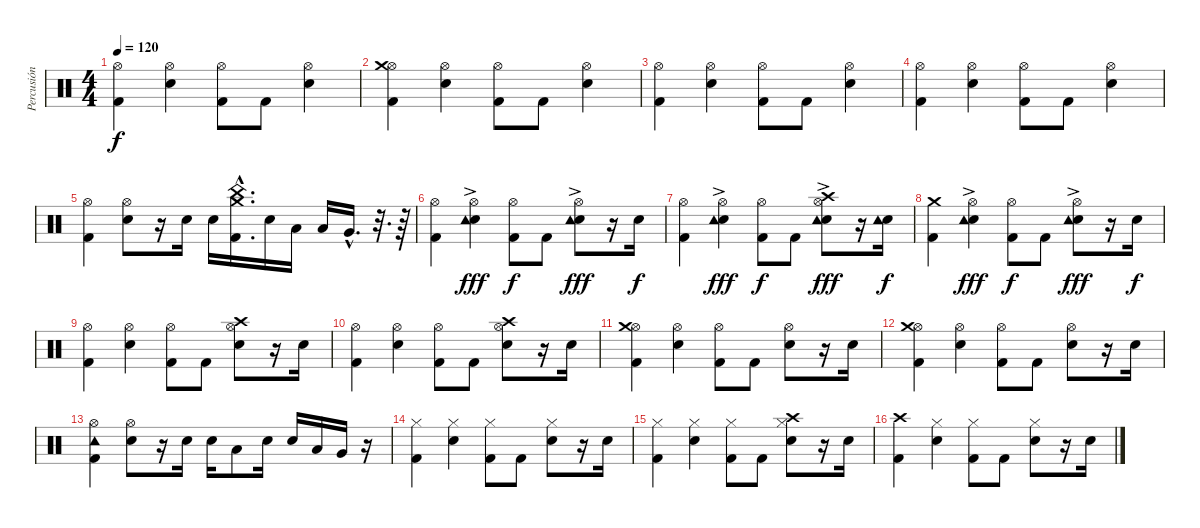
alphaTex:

\track ("Percusión" "Percusión") {instrument percussion}
\staff {score}
\articulation defaults
\ts (4 4)
\tempo 120
\clef neutral
\ks c
("Hi-Hat (open)" "Kick (hit) 2").4{dy f} ("Hi-Hat (open)" "Electric Snare (hit)").4 ("Hi-Hat (open)" "Kick (hit) 2").8 "Kick (hit) 2".8 ("Hi-Hat (open)" "Electric Snare (hit)").4 |
("Hi-Hat (open)" "Kick (hit) 2" "Crash medium (hit)").4 ("Hi-Hat (open)" "Electric Snare (hit)").4 ("Hi-Hat (open)" "Kick (hit) 2").8 "Kick (hit) 2".8 ("Hi-Hat (open)" "Electric Snare (hit)").4 |
("Hi-Hat (open)" "Kick (hit) 2").4 ("Hi-Hat (open)" "Electric Snare (hit)").4 ("Hi-Hat (open)" "Kick (hit) 2").8 "Kick (hit) 2".8 ("Hi-Hat (open)" "Electric Snare (hit)").4 |
("Hi-Hat (open)" "Kick (hit) 2").4 ("Hi-Hat (open)" "Electric Snare (hit)").4 ("Hi-Hat (open)" "Kick (hit) 2").8 "Kick (hit) 2".8 ("Hi-Hat (open)" "Electric Snare (hit)").4 |
("Hi-Hat (open)" "Kick (hit) 2").4 ("Hi-Hat (open)" "Electric Snare (hit)").8 r.16 "Electric Snare (hit)".16 "Electric Snare (hit)".16 ("Kick (hit) 2"{hac} "China (hit)"{hac} "Crash medium (hit)"{hac}).16{d} "Electric Snare (hit)".16 "Low Tom (hit)".16 "Low Tom (hit)".16 "Very Low Tom (hit)"{hac}.16{d} r.32{d} r.64 |
("Hi-Hat (open)" "Kick (hit) 2").4 ("Hi-Hat (open)" "Electric Snare (hit)" "Tambourine (hit)"{ac}).4{dy fff} ("Hi-Hat (open)" "Kick (hit) 2").8{dy f} "Kick (hit) 2".8 ("Hi-Hat (open)" "Electric Snare (hit)" "Tambourine (hit)"{ac}).8{dy fff} r.16 "Electric Snare (hit)".16{dy f} |
("Hi-Hat (open)" "Kick (hit) 2").4 ("Hi-Hat (open)" "Electric Snare (hit)" "Tambourine (hit)"{ac}).4{dy fff} ("Hi-Hat (open)" "Kick (hit) 2").8{dy f} "Kick (hit) 2".8 ("Hi-Hat (open)" "Crash high (hit)" "Electric Snare (hit)" "Tambourine (hit)"{ac}).8{dy fff} r.16 ("Electric Snare (hit)" "Tambourine (hit)").16{dy f} |
("Crash medium (hit)" "Kick (hit) 2").4 ("Hi-Hat (open)" "Electric Snare (hit)" "Tambourine (hit)"{ac}).4{dy fff} ("Hi-Hat (open)" "Kick (hit) 2").8{dy f} "Kick (hit) 2".8 ("Hi-Hat (open)" "Electric Snare (hit)" "Tambourine (hit)"{ac}).8{dy fff} r.16 "Electric Snare (hit)".16{dy f} |
("Hi-Hat (open)" "Kick (hit) 2").4 ("Hi-Hat (open)" "Electric Snare (hit)").4 ("Hi-Hat (open)" "Kick (hit) 2").8 "Kick (hit) 2".8 ("Hi-Hat (open)" "Crash high (hit)" "Electric Snare (hit)").8 r.16 "Electric Snare (hit)".16 |
("Hi-Hat (open)" "Kick (hit) 2").4 ("Hi-Hat (open)" "Electric Snare (hit)").4 ("Hi-Hat (open)" "Kick (hit) 2").8 "Kick (hit) 2".8 ("Hi-Hat (open)" "Crash high (hit)" "Electric Snare (hit)").8 r.16 "Electric Snare (hit)".16 |
("Hi-Hat (open)" "Kick (hit) 2" "Crash medium (hit)").4 ("Hi-Hat (open)" "Electric Snare (hit)").4 ("Hi-Hat (open)" "Kick (hit) 2").8 "Kick (hit) 2".8 ("Hi-Hat (open)" "Electric Snare (hit)").8 r.16 "Electric Snare (hit)".16 |
("Hi-Hat (open)" "Kick (hit) 2" "Crash medium (hit)").4 ("Hi-Hat (open)" "Electric Snare (hit)").4 ("Hi-Hat (open)" "Kick (hit) 2").8 "Kick (hit) 2".8 ("Hi-Hat (open)" "Electric Snare (hit)").8 r.16 "Electric Snare (hit)".16 |
("Hi-Hat (open)" "Kick (hit) 2" "Tambourine (hit)").4 ("Hi-Hat (open)" "Electric Snare (hit)").8 r.16 "Electric Snare (hit)".16 "Electric Snare (hit)".16 "Low Floor Tom (hit)".8 "Electric Snare (hit)".16 "Electric Snare (hit)".16 "Low Tom (hit)".16 "Very Low Tom (hit)".16 r.16 |
("Hi-Hat (closed)" "Kick (hit) 2").4 ("Hi-Hat (closed)" "Electric Snare (hit)").4 ("Hi-Hat (closed)" "Kick (hit) 2").8 "Kick (hit) 2".8 ("Hi-Hat (closed)" "Electric Snare (hit)").8 r.16 "Electric Snare (hit)".16 |
("Hi-Hat (closed)" "Kick (hit) 2").4 ("Hi-Hat (closed)" "Electric Snare (hit)").4 ("Hi-Hat (closed)" "Kick (hit) 2").8 "Kick (hit) 2".8 ("Hi-Hat (closed)" "Crash high (hit)" "Electric Snare (hit)").8 r.16 "Electric Snare (hit)".16 |
("Crash high (hit)" "Kick (hit) 2").4 ("Hi-Hat (closed)" "Electric Snare (hit)").4 ("Hi-Hat (closed)" "Kick (hit) 2").8 "Kick (hit) 2".8 ("Hi-Hat (closed)" "Electric Snare (hit)").8 r.16 "Electric Snare (hit)".16
